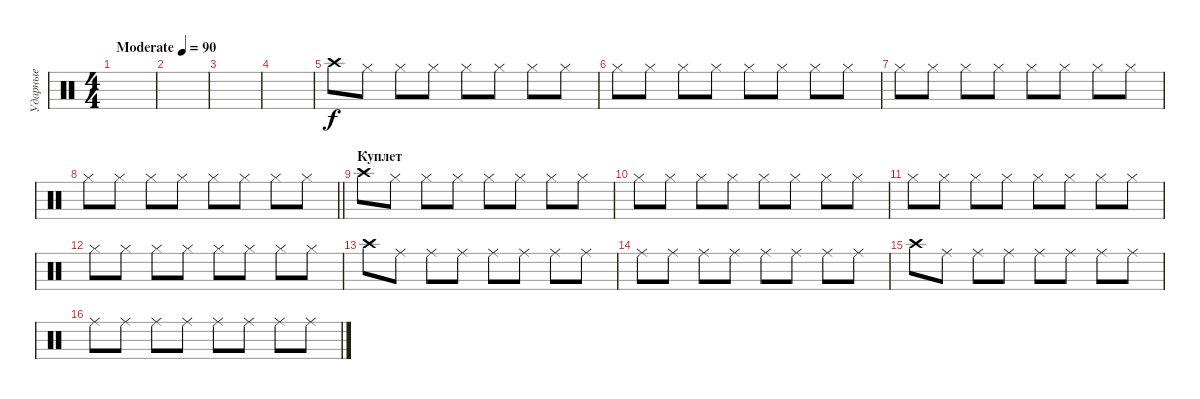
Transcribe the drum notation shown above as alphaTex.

\track ("Ударные" "Ударные") {instrument percussion}
\staff {score}
\articulation defaults
\ts (4 4)
\tempo (90 "Moderate")
\clef neutral
\ks c
|
|
|
|
"Crash high (hit)".8 "Hi-Hat (closed)".8 "Hi-Hat (closed)".8 "Hi-Hat (closed)".8 "Hi-Hat (closed)".8 "Hi-Hat (closed)".8 "Hi-Hat (closed)".8 "Hi-Hat (closed)".8 |
"Hi-Hat (closed)".8 "Hi-Hat (closed)".8 "Hi-Hat (closed)".8 "Hi-Hat (closed)".8 "Hi-Hat (closed)".8 "Hi-Hat (closed)".8 "Hi-Hat (closed)".8 "Hi-Hat (closed)".8 |
"Hi-Hat (closed)".8 "Hi-Hat (closed)".8 "Hi-Hat (closed)".8 "Hi-Hat (closed)".8 "Hi-Hat (closed)".8 "Hi-Hat (closed)".8 "Hi-Hat (closed)".8 "Hi-Hat (closed)".8 |
\barLineRight lightlight "Hi-Hat (closed)".8 "Hi-Hat (closed)".8 "Hi-Hat (closed)".8 "Hi-Hat (closed)".8 "Hi-Hat (closed)".8 "Hi-Hat (closed)".8 "Hi-Hat (closed)".8 "Hi-Hat (closed)".8
|
\section ("" "Куплет")
"Crash high (hit)".8 "Hi-Hat (closed)".8 "Hi-Hat (closed)".8 "Hi-Hat (closed)".8 "Hi-Hat (closed)".8 "Hi-Hat (closed)".8 "Hi-Hat (closed)".8 "Hi-Hat (closed)".8 |
"Hi-Hat (closed)".8 "Hi-Hat (closed)".8 "Hi-Hat (closed)".8 "Hi-Hat (closed)".8 "Hi-Hat (closed)".8 "Hi-Hat (closed)".8 "Hi-Hat (closed)".8 "Hi-Hat (closed)".8 |
"Hi-Hat (closed)".8 "Hi-Hat (closed)".8 "Hi-Hat (closed)".8 "Hi-Hat (closed)".8 "Hi-Hat (closed)".8 "Hi-Hat (closed)".8 "Hi-Hat (closed)".8 "Hi-Hat (closed)".8 |
"Hi-Hat (closed)".8 "Hi-Hat (closed)".8 "Hi-Hat (closed)".8 "Hi-Hat (closed)".8 "Hi-Hat (closed)".8 "Hi-Hat (closed)".8 "Hi-Hat (closed)".8 "Hi-Hat (closed)".8 |
"Crash high (hit)".8 "Ride (middle)".8 "Ride (middle)".8 "Ride (middle)".8 "Ride (middle)".8 "Ride (middle)".8 "Ride (middle)".8 "Ride (middle)".8 |
"Ride (middle)".8 "Ride (middle)".8 "Ride (middle)".8 "Ride (middle)".8 "Ride (middle)".8 "Ride (middle)".8 "Ride (middle)".8 "Ride (middle)".8 |
"Crash high (hit)".8 "Ride (middle)".8 "Ride (middle)".8 "Ride (middle)".8 "Ride (middle)".8 "Ride (middle)".8 "Ride (middle)".8 "Ride (middle)".8 |
"Ride (middle)".8 "Ride (middle)".8 "Ride (middle)".8 "Ride (middle)".8 "Ride (middle)".8 "Ride (middle)".8 "Ride (middle)".8 "Ride (middle)".8
